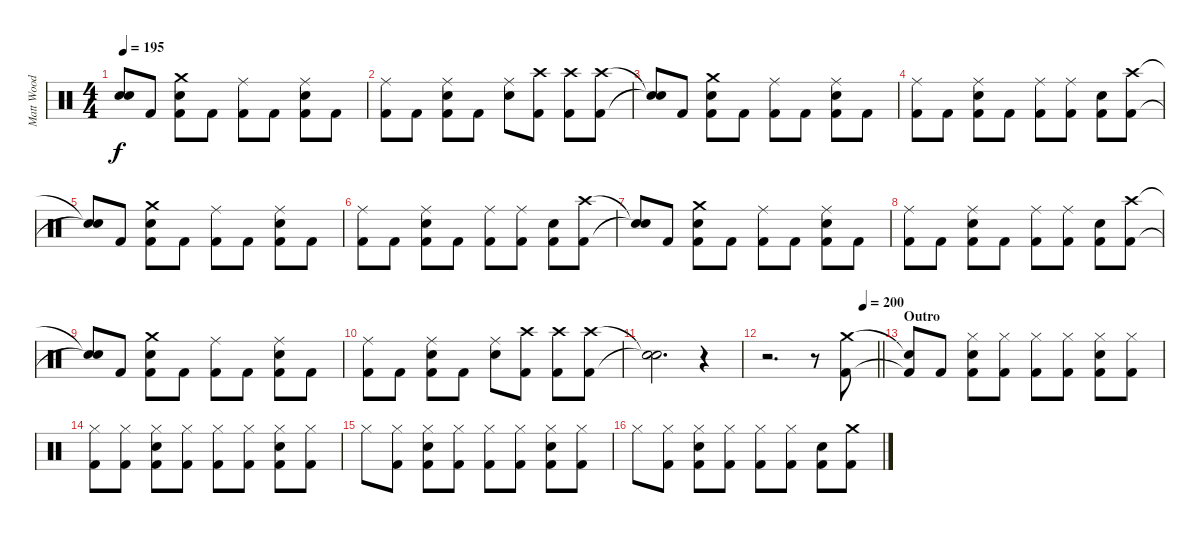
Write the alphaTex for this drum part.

\track ("Matt Wood" "Matt Wood") {instrument percussion}
\staff {score}
\articulation defaults
\ts (4 4)
\tempo 195
\clef neutral
\ks c
("Snare (hit)"{t} "Snare (hit)"{t}).8{dy f} "Kick (hit) 2".8 ("Crash medium (hit)" "Snare (hit) 2" "Kick (hit) 2").8 "Kick (hit) 2".8 ("Ride (middle)" "Kick (hit) 2").8 "Kick (hit) 2".8 ("Ride (middle)" "Snare (hit) 2" "Kick (hit) 2").8 "Kick (hit) 2".8 |
("Ride (middle)" "Kick (hit) 2").8 "Kick (hit) 2".8 ("Ride (middle)" "Snare (hit) 2" "Kick (hit) 2").8 "Kick (hit) 2".8 ("Ride (middle)" "Snare (hit) 2").8 ("Crash high (hit)" "Kick (hit) 2").8 ("Crash high (hit)" "Kick (hit) 2").8 ("Crash high (hit)" "Kick (hit) 2").8 |
("Snare (hit)"{t} "Snare (hit)"{t}).8 "Kick (hit) 2".8 ("Crash medium (hit)" "Snare (hit) 2" "Kick (hit) 2").8 "Kick (hit) 2".8 ("Ride (middle)" "Kick (hit) 2").8 "Kick (hit) 2".8 ("Ride (middle)" "Snare (hit) 2" "Kick (hit) 2").8 "Kick (hit) 2".8 |
("Ride (middle)" "Kick (hit) 2").8 "Kick (hit) 2".8 ("Ride (middle)" "Snare (hit) 2" "Kick (hit) 2").8 "Kick (hit) 2".8 ("Ride (middle)" "Kick (hit) 2").8 ("Ride (middle)" "Kick (hit) 2").8 ("Snare (hit) 2" "Kick (hit) 2").8 ("Crash high (hit)" "Kick (hit) 2").8 |
("Snare (hit)"{t} "Snare (hit)"{t}).8 "Kick (hit) 2".8 ("Crash medium (hit)" "Snare (hit) 2" "Kick (hit) 2").8 "Kick (hit) 2".8 ("Ride (middle)" "Kick (hit) 2").8 "Kick (hit) 2".8 ("Ride (middle)" "Snare (hit) 2" "Kick (hit) 2").8 "Kick (hit) 2".8 |
("Ride (middle)" "Kick (hit) 2").8 "Kick (hit) 2".8 ("Ride (middle)" "Snare (hit) 2" "Kick (hit) 2").8 "Kick (hit) 2".8 ("Ride (middle)" "Kick (hit) 2").8 ("Ride (middle)" "Kick (hit) 2").8 ("Snare (hit) 2" "Kick (hit) 2").8 ("Crash high (hit)" "Kick (hit) 2").8 |
("Snare (hit)"{t} "Snare (hit)"{t}).8 "Kick (hit) 2".8 ("Crash medium (hit)" "Snare (hit) 2" "Kick (hit) 2").8 "Kick (hit) 2".8 ("Ride (middle)" "Kick (hit) 2").8 "Kick (hit) 2".8 ("Ride (middle)" "Snare (hit) 2" "Kick (hit) 2").8 "Kick (hit) 2".8 |
("Ride (middle)" "Kick (hit) 2").8 "Kick (hit) 2".8 ("Ride (middle)" "Snare (hit) 2" "Kick (hit) 2").8 "Kick (hit) 2".8 ("Ride (middle)" "Kick (hit) 2").8 ("Ride (middle)" "Kick (hit) 2").8 ("Snare (hit) 2" "Kick (hit) 2").8 ("Crash high (hit)" "Kick (hit) 2").8 |
("Snare (hit)"{t} "Snare (hit)"{t}).8 "Kick (hit) 2".8 ("Crash medium (hit)" "Snare (hit) 2" "Kick (hit) 2").8 "Kick (hit) 2".8 ("Ride (middle)" "Kick (hit) 2").8 "Kick (hit) 2".8 ("Ride (middle)" "Snare (hit) 2" "Kick (hit) 2").8 "Kick (hit) 2".8 |
("Ride (middle)" "Kick (hit) 2").8 "Kick (hit) 2".8 ("Ride (middle)" "Snare (hit) 2" "Kick (hit) 2").8 "Kick (hit) 2".8 ("Ride (middle)" "Snare (hit) 2").8 ("Crash high (hit)" "Kick (hit) 2").8 ("Crash high (hit)" "Kick (hit) 2").8 ("Crash high (hit)" "Kick (hit) 2").8 |
("Snare (hit)"{t} "Snare (hit)"{t}).2{d} r.4 |
\tempo (200 0.875)
\barLineRight lightlight
r.2{d} r.8 ("Crash medium (hit)" "Kick (hit) 2").8 |
\section ("" "Outro")
("Snare (hit)"{t} "Kick (hit) 2"{t}).8 "Kick (hit) 2".8 ("Hi-Hat (closed)" "Snare (hit) 2" "Kick (hit) 2").8 ("Hi-Hat (closed)" "Kick (hit) 2").8 ("Hi-Hat (closed)" "Kick (hit) 2").8 ("Hi-Hat (closed)" "Kick (hit) 2").8 ("Hi-Hat (closed)" "Snare (hit) 2" "Kick (hit) 2").8 ("Hi-Hat (closed)" "Kick (hit) 2").8 |
("Hi-Hat (closed)" "Kick (hit) 2").8 ("Hi-Hat (closed)" "Kick (hit) 2").8 ("Hi-Hat (closed)" "Snare (hit) 2" "Kick (hit) 2").8 ("Hi-Hat (closed)" "Kick (hit) 2").8 ("Hi-Hat (closed)" "Kick (hit) 2").8 ("Hi-Hat (closed)" "Kick (hit) 2").8 ("Hi-Hat (closed)" "Snare (hit) 2" "Kick (hit) 2").8 ("Hi-Hat (closed)" "Kick (hit) 2").8 |
"Hi-Hat (closed)".8 ("Hi-Hat (closed)" "Kick (hit) 2").8 ("Hi-Hat (closed)" "Snare (hit) 2" "Kick (hit) 2").8 ("Hi-Hat (closed)" "Kick (hit) 2").8 ("Hi-Hat (closed)" "Kick (hit) 2").8 ("Hi-Hat (closed)" "Kick (hit) 2").8 ("Hi-Hat (closed)" "Snare (hit) 2" "Kick (hit) 2").8 ("Hi-Hat (closed)" "Kick (hit) 2").8 |
"Hi-Hat (closed)".8 ("Hi-Hat (closed)" "Kick (hit) 2").8 ("Hi-Hat (closed)" "Snare (hit) 2" "Kick (hit) 2").8 ("Hi-Hat (closed)" "Kick (hit) 2").8 ("Hi-Hat (closed)" "Kick (hit) 2").8 ("Hi-Hat (closed)" "Kick (hit) 2").8 ("Snare (hit) 2" "Kick (hit) 2").8 ("Crash medium (hit)" "Kick (hit) 2").8
